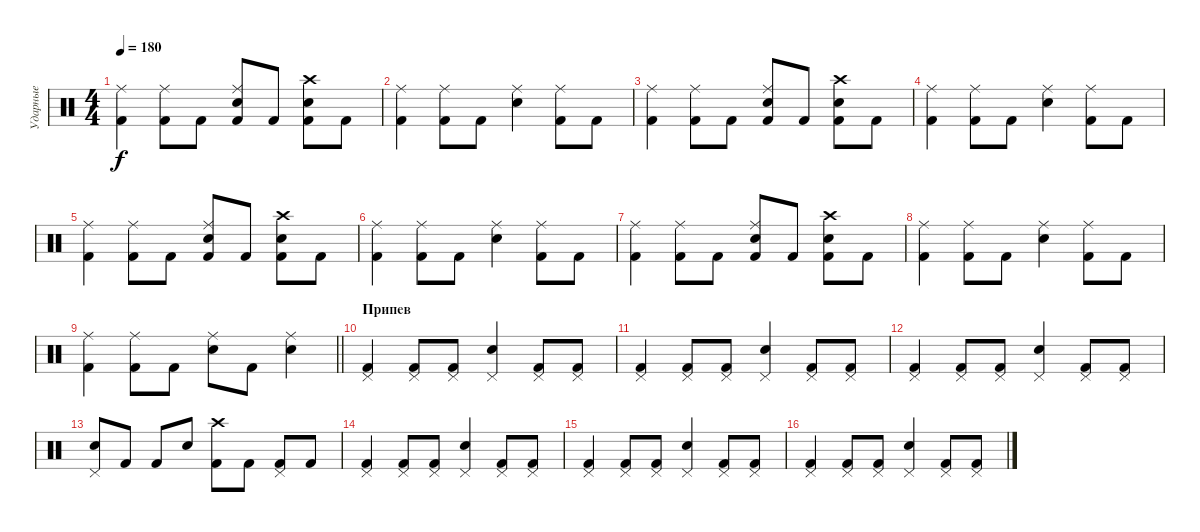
\track ("Ударные" "Ударные") {instrument percussion}
\staff {score}
\articulation defaults
\ts (4 4)
\tempo 180
\clef neutral
\ks c
("Kick (hit) 2" "Ride (middle)").4{dy f} ("Kick (hit) 2" "Ride (middle)").8 "Kick (hit) 2".8 ("Kick (hit) 2" "Snare (hit) 2" "Ride (middle)").8 "Kick (hit) 2".8 ("Kick (hit) 2" "Snare (hit) 2" "Crash high (hit)").8 "Kick (hit) 2".8 |
("Kick (hit) 2" "Ride (middle)").4 ("Kick (hit) 2" "Ride (middle)").8 "Kick (hit) 2".8 ("Snare (hit) 2" "Ride (middle)").4 ("Kick (hit) 2" "Ride (middle)").8 "Kick (hit) 2".8 |
("Kick (hit) 2" "Ride (middle)").4 ("Kick (hit) 2" "Ride (middle)").8 "Kick (hit) 2".8 ("Kick (hit) 2" "Snare (hit) 2" "Ride (middle)").8 "Kick (hit) 2".8 ("Kick (hit) 2" "Snare (hit) 2" "Crash high (hit)").8 "Kick (hit) 2".8 |
("Kick (hit) 2" "Ride (middle)").4 ("Kick (hit) 2" "Ride (middle)").8 "Kick (hit) 2".8 ("Snare (hit) 2" "Ride (middle)").4 ("Kick (hit) 2" "Ride (middle)").8 "Kick (hit) 2".8 |
("Kick (hit) 2" "Ride (middle)").4 ("Kick (hit) 2" "Ride (middle)").8 "Kick (hit) 2".8 ("Kick (hit) 2" "Snare (hit) 2" "Ride (middle)").8 "Kick (hit) 2".8 ("Kick (hit) 2" "Snare (hit) 2" "Crash high (hit)").8 "Kick (hit) 2".8 |
("Kick (hit) 2" "Ride (middle)").4 ("Kick (hit) 2" "Ride (middle)").8 "Kick (hit) 2".8 ("Snare (hit) 2" "Ride (middle)").4 ("Kick (hit) 2" "Ride (middle)").8 "Kick (hit) 2".8 |
("Kick (hit) 2" "Ride (middle)").4 ("Kick (hit) 2" "Ride (middle)").8 "Kick (hit) 2".8 ("Kick (hit) 2" "Snare (hit) 2" "Ride (middle)").8 "Kick (hit) 2".8 ("Kick (hit) 2" "Snare (hit) 2" "Crash high (hit)").8 "Kick (hit) 2".8 |
("Kick (hit) 2" "Ride (middle)").4 ("Kick (hit) 2" "Ride (middle)").8 "Kick (hit) 2".8 ("Snare (hit) 2" "Ride (middle)").4 ("Kick (hit) 2" "Ride (middle)").8 "Kick (hit) 2".8 |
\barLineRight lightlight
("Kick (hit) 2" "Ride (middle)").4 ("Kick (hit) 2" "Ride (middle)").8 "Kick (hit) 2".8 ("Snare (hit) 2" "Ride (middle)").8 "Kick (hit) 2".8 ("Snare (hit) 2" "Ride (middle)").4 |
\section ("" "Припев")
("Kick (hit) 2" "Pedal Hi-Hat (hit)").4 ("Kick (hit) 2" "Pedal Hi-Hat (hit)").8 ("Kick (hit) 2" "Pedal Hi-Hat (hit)").8 ("Snare (hit) 2" "Pedal Hi-Hat (hit)").4 ("Kick (hit) 2" "Pedal Hi-Hat (hit)").8 ("Kick (hit) 2" "Pedal Hi-Hat (hit)").8 |
("Kick (hit) 2" "Pedal Hi-Hat (hit)").4 ("Kick (hit) 2" "Pedal Hi-Hat (hit)").8 ("Kick (hit) 2" "Pedal Hi-Hat (hit)").8 ("Snare (hit) 2" "Pedal Hi-Hat (hit)").4 ("Kick (hit) 2" "Pedal Hi-Hat (hit)").8 ("Kick (hit) 2" "Pedal Hi-Hat (hit)").8 |
("Kick (hit) 2" "Pedal Hi-Hat (hit)").4 ("Kick (hit) 2" "Pedal Hi-Hat (hit)").8 ("Kick (hit) 2" "Pedal Hi-Hat (hit)").8 ("Snare (hit) 2" "Pedal Hi-Hat (hit)").4 ("Kick (hit) 2" "Pedal Hi-Hat (hit)").8 ("Kick (hit) 2" "Pedal Hi-Hat (hit)").8 |
("Snare (hit) 2" "Pedal Hi-Hat (hit)").8 "Kick (hit) 2".8 "Kick (hit) 2".8 "Snare (hit) 2".8 ("Kick (hit) 2" "Crash high (hit)").8 "Kick (hit) 2".8 ("Kick (hit) 2" "Pedal Hi-Hat (hit)").8 "Kick (hit) 2".8 |
("Kick (hit) 2" "Pedal Hi-Hat (hit)").4 ("Kick (hit) 2" "Pedal Hi-Hat (hit)").8 ("Kick (hit) 2" "Pedal Hi-Hat (hit)").8 ("Snare (hit) 2" "Pedal Hi-Hat (hit)").4 ("Kick (hit) 2" "Pedal Hi-Hat (hit)").8 ("Kick (hit) 2" "Pedal Hi-Hat (hit)").8 |
("Kick (hit) 2" "Pedal Hi-Hat (hit)").4 ("Kick (hit) 2" "Pedal Hi-Hat (hit)").8 ("Kick (hit) 2" "Pedal Hi-Hat (hit)").8 ("Snare (hit) 2" "Pedal Hi-Hat (hit)").4 ("Kick (hit) 2" "Pedal Hi-Hat (hit)").8 ("Kick (hit) 2" "Pedal Hi-Hat (hit)").8 |
("Kick (hit) 2" "Pedal Hi-Hat (hit)").4 ("Kick (hit) 2" "Pedal Hi-Hat (hit)").8 ("Kick (hit) 2" "Pedal Hi-Hat (hit)").8 ("Snare (hit) 2" "Pedal Hi-Hat (hit)").4 ("Kick (hit) 2" "Pedal Hi-Hat (hit)").8 ("Kick (hit) 2" "Pedal Hi-Hat (hit)").8
